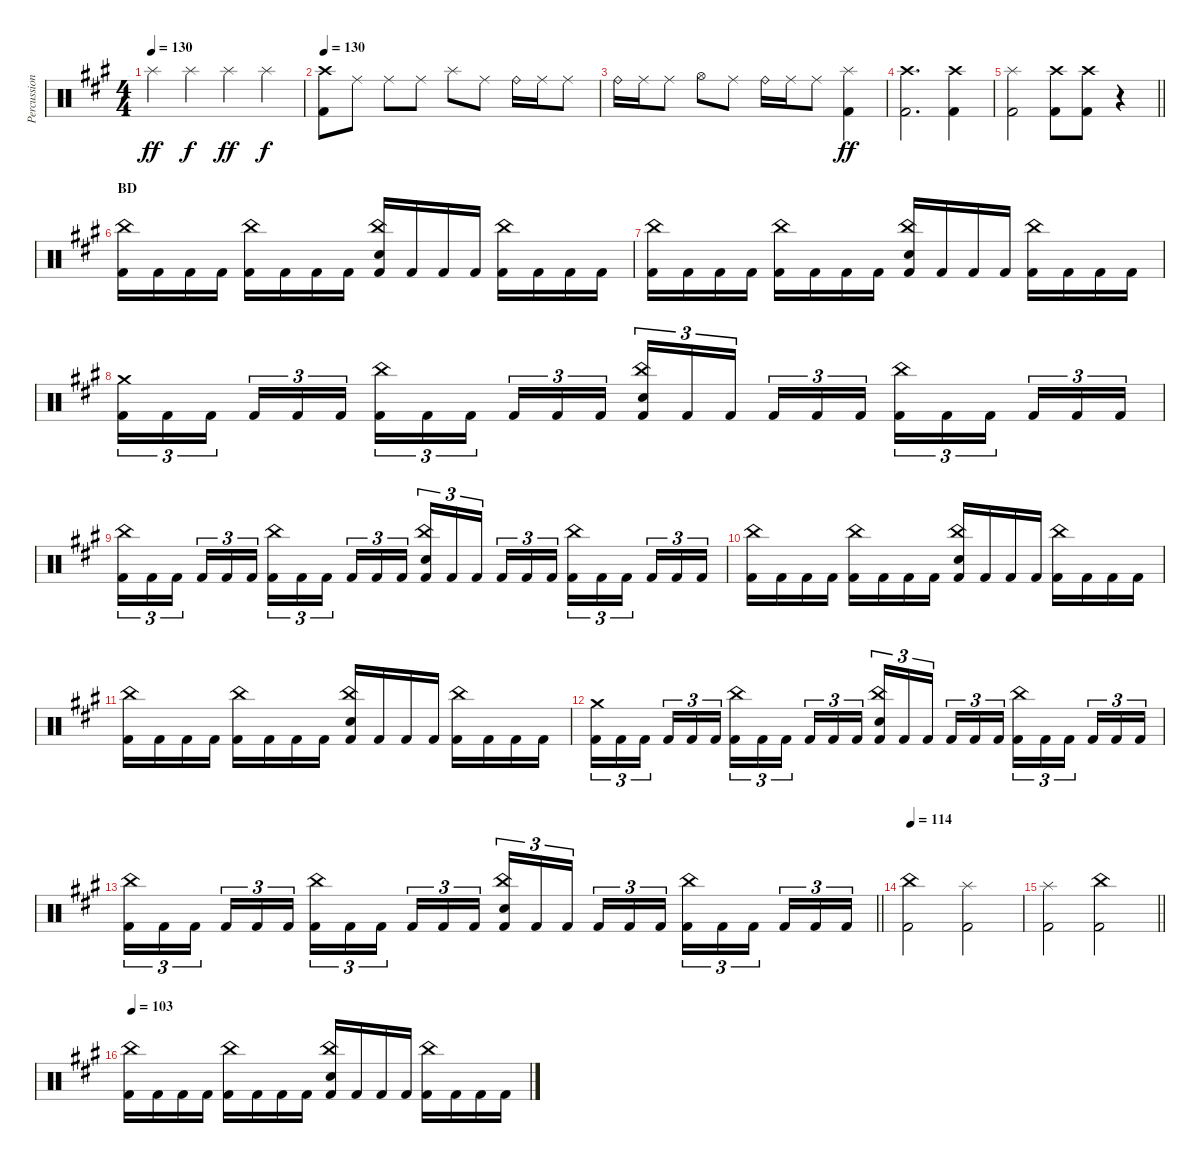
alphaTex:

\track ("Percussion" "Percussion") {instrument percussion bank 127}
\staff {score}
\articulation defaults
\ts (4 4)
\tempo 130
\clef neutral
\ks a "Splash (hit)".4{dy ff} "Splash (hit)".4{dy f} "Splash (hit)".4{dy ff} "Splash (hit)".4{dy f}
|
\tempo 130
("Crash high (hit)" "Kick (hit) 2").8 "Ride (middle)".8 "Ride (middle)".8 "Ride (middle)".8 "Splash (hit)".8 "Ride (middle)".8 "Ride (bell)".16 "Ride (middle)".16 "Ride (middle)".8 |
"Ride (bell)".16 "Ride (middle)".16 "Ride (middle)".8 "Hi-Hat (open)".8 "Ride (middle)".8 "Ride (bell)".16 "Ride (middle)".16 "Ride (middle)".8 ("Splash (hit)" "Kick (hit) 2").4{dy ff} |
("Crash high (hit)" "Kick (hit) 2").2{d} ("Crash high (hit)" "Kick (hit) 2").4 |
\barLineRight lightlight
("Splash (hit)" "Kick (hit) 2").2 ("Crash high (hit)" "Kick (hit) 2").8 ("Crash high (hit)" "Kick (hit) 2").8 r.4 |
\section ("" "BD")
("China (hit)" "Kick (hit) 2").16 "Kick (hit) 2".16 "Kick (hit) 2".16 "Kick (hit) 2".16 ("China (hit)" "Kick (hit) 2").16 "Kick (hit) 2".16 "Kick (hit) 2".16 "Kick (hit) 2".16 ("China (hit)" "Electric Snare (hit)" "Kick (hit) 2").16 "Kick (hit) 2".16 "Kick (hit) 2".16 "Kick (hit) 2".16 ("China (hit)" "Kick (hit) 2").16 "Kick (hit) 2".16 "Kick (hit) 2".16 "Kick (hit) 2".16 |
("China (hit)" "Kick (hit) 2").16 "Kick (hit) 2".16 "Kick (hit) 2".16 "Kick (hit) 2".16 ("China (hit)" "Kick (hit) 2").16 "Kick (hit) 2".16 "Kick (hit) 2".16 "Kick (hit) 2".16 ("China (hit)" "Electric Snare (hit)" "Kick (hit) 2").16 "Kick (hit) 2".16 "Kick (hit) 2".16 "Kick (hit) 2".16 ("China (hit)" "Kick (hit) 2").16 "Kick (hit) 2".16 "Kick (hit) 2".16 "Kick (hit) 2".16 |
("Crash medium (hit)" "Kick (hit) 2").16{tu (3 2)} "Kick (hit) 2".16{tu (3 2)} "Kick (hit) 2".16{tu (3 2) beam splitsecondary} "Kick (hit) 2".16{tu (3 2)} "Kick (hit) 2".16{tu (3 2)} "Kick (hit) 2".16{tu (3 2)} ("China (hit)" "Kick (hit) 2").16{tu (3 2)} "Kick (hit) 2".16{tu (3 2)} "Kick (hit) 2".16{tu (3 2) beam splitsecondary} "Kick (hit) 2".16{tu (3 2)} "Kick (hit) 2".16{tu (3 2)} "Kick (hit) 2".16{tu (3 2)} ("China (hit)" "Electric Snare (hit)" "Kick (hit) 2").16{tu (3 2)} "Kick (hit) 2".16{tu (3 2)} "Kick (hit) 2".16{tu (3 2) beam splitsecondary} "Kick (hit) 2".16{tu (3 2)} "Kick (hit) 2".16{tu (3 2)} "Kick (hit) 2".16{tu (3 2)} ("China (hit)" "Kick (hit) 2").16{tu (3 2)} "Kick (hit) 2".16{tu (3 2)} "Kick (hit) 2".16{tu (3 2) beam splitsecondary} "Kick (hit) 2".16{tu (3 2)} "Kick (hit) 2".16{tu (3 2)} "Kick (hit) 2".16{tu (3 2)} |
("China (hit)" "Kick (hit) 2").16{tu (3 2)} "Kick (hit) 2".16{tu (3 2)} "Kick (hit) 2".16{tu (3 2) beam splitsecondary} "Kick (hit) 2".16{tu (3 2)} "Kick (hit) 2".16{tu (3 2)} "Kick (hit) 2".16{tu (3 2)} ("China (hit)" "Kick (hit) 2").16{tu (3 2)} "Kick (hit) 2".16{tu (3 2)} "Kick (hit) 2".16{tu (3 2) beam splitsecondary} "Kick (hit) 2".16{tu (3 2)} "Kick (hit) 2".16{tu (3 2)} "Kick (hit) 2".16{tu (3 2)} ("China (hit)" "Electric Snare (hit)" "Kick (hit) 2").16{tu (3 2)} "Kick (hit) 2".16{tu (3 2)} "Kick (hit) 2".16{tu (3 2) beam splitsecondary} "Kick (hit) 2".16{tu (3 2)} "Kick (hit) 2".16{tu (3 2)} "Kick (hit) 2".16{tu (3 2)} ("China (hit)" "Kick (hit) 2").16{tu (3 2)} "Kick (hit) 2".16{tu (3 2)} "Kick (hit) 2".16{tu (3 2) beam splitsecondary} "Kick (hit) 2".16{tu (3 2)} "Kick (hit) 2".16{tu (3 2)} "Kick (hit) 2".16{tu (3 2)} |
("China (hit)" "Kick (hit) 2").16 "Kick (hit) 2".16 "Kick (hit) 2".16 "Kick (hit) 2".16 ("China (hit)" "Kick (hit) 2").16 "Kick (hit) 2".16 "Kick (hit) 2".16 "Kick (hit) 2".16 ("China (hit)" "Electric Snare (hit)" "Kick (hit) 2").16 "Kick (hit) 2".16 "Kick (hit) 2".16 "Kick (hit) 2".16 ("China (hit)" "Kick (hit) 2").16 "Kick (hit) 2".16 "Kick (hit) 2".16 "Kick (hit) 2".16 |
("China (hit)" "Kick (hit) 2").16 "Kick (hit) 2".16 "Kick (hit) 2".16 "Kick (hit) 2".16 ("China (hit)" "Kick (hit) 2").16 "Kick (hit) 2".16 "Kick (hit) 2".16 "Kick (hit) 2".16 ("China (hit)" "Electric Snare (hit)" "Kick (hit) 2").16 "Kick (hit) 2".16 "Kick (hit) 2".16 "Kick (hit) 2".16 ("China (hit)" "Kick (hit) 2").16 "Kick (hit) 2".16 "Kick (hit) 2".16 "Kick (hit) 2".16 |
("Crash medium (hit)" "Kick (hit) 2").16{tu (3 2)} "Kick (hit) 2".16{tu (3 2)} "Kick (hit) 2".16{tu (3 2) beam splitsecondary} "Kick (hit) 2".16{tu (3 2)} "Kick (hit) 2".16{tu (3 2)} "Kick (hit) 2".16{tu (3 2)} ("China (hit)" "Kick (hit) 2").16{tu (3 2)} "Kick (hit) 2".16{tu (3 2)} "Kick (hit) 2".16{tu (3 2) beam splitsecondary} "Kick (hit) 2".16{tu (3 2)} "Kick (hit) 2".16{tu (3 2)} "Kick (hit) 2".16{tu (3 2)} ("China (hit)" "Electric Snare (hit)" "Kick (hit) 2").16{tu (3 2)} "Kick (hit) 2".16{tu (3 2)} "Kick (hit) 2".16{tu (3 2) beam splitsecondary} "Kick (hit) 2".16{tu (3 2)} "Kick (hit) 2".16{tu (3 2)} "Kick (hit) 2".16{tu (3 2)} ("China (hit)" "Kick (hit) 2").16{tu (3 2)} "Kick (hit) 2".16{tu (3 2)} "Kick (hit) 2".16{tu (3 2) beam splitsecondary} "Kick (hit) 2".16{tu (3 2)} "Kick (hit) 2".16{tu (3 2)} "Kick (hit) 2".16{tu (3 2)} |
\barLineRight lightlight
("China (hit)" "Kick (hit) 2").16{tu (3 2)} "Kick (hit) 2".16{tu (3 2)} "Kick (hit) 2".16{tu (3 2) beam splitsecondary} "Kick (hit) 2".16{tu (3 2)} "Kick (hit) 2".16{tu (3 2)} "Kick (hit) 2".16{tu (3 2)} ("China (hit)" "Kick (hit) 2").16{tu (3 2)} "Kick (hit) 2".16{tu (3 2)} "Kick (hit) 2".16{tu (3 2) beam splitsecondary} "Kick (hit) 2".16{tu (3 2)} "Kick (hit) 2".16{tu (3 2)} "Kick (hit) 2".16{tu (3 2)} ("China (hit)" "Electric Snare (hit)" "Kick (hit) 2").16{tu (3 2)} "Kick (hit) 2".16{tu (3 2)} "Kick (hit) 2".16{tu (3 2) beam splitsecondary} "Kick (hit) 2".16{tu (3 2)} "Kick (hit) 2".16{tu (3 2)} "Kick (hit) 2".16{tu (3 2)} ("China (hit)" "Kick (hit) 2").16{tu (3 2)} "Kick (hit) 2".16{tu (3 2)} "Kick (hit) 2".16{tu (3 2) beam splitsecondary} "Kick (hit) 2".16{tu (3 2)} "Kick (hit) 2".16{tu (3 2)} "Kick (hit) 2".16{tu (3 2)} |
\section ("" "")
\tempo 114
("China (hit)" "Kick (hit) 2").2 ("Splash (hit)" "Kick (hit) 2").2 |
\barLineRight lightlight
("Splash (hit)" "Kick (hit) 2").2 ("China (hit)" "Kick (hit) 2").2 |
\section ("" "")
\tempo 103
("China (hit)" "Kick (hit) 2").16 "Kick (hit) 2".16 "Kick (hit) 2".16 "Kick (hit) 2".16 ("China (hit)" "Kick (hit) 2").16 "Kick (hit) 2".16 "Kick (hit) 2".16 "Kick (hit) 2".16 ("China (hit)" "Electric Snare (hit)" "Kick (hit) 2").16 "Kick (hit) 2".16 "Kick (hit) 2".16 "Kick (hit) 2".16 ("China (hit)" "Kick (hit) 2").16 "Kick (hit) 2".16 "Kick (hit) 2".16 "Kick (hit) 2".16
